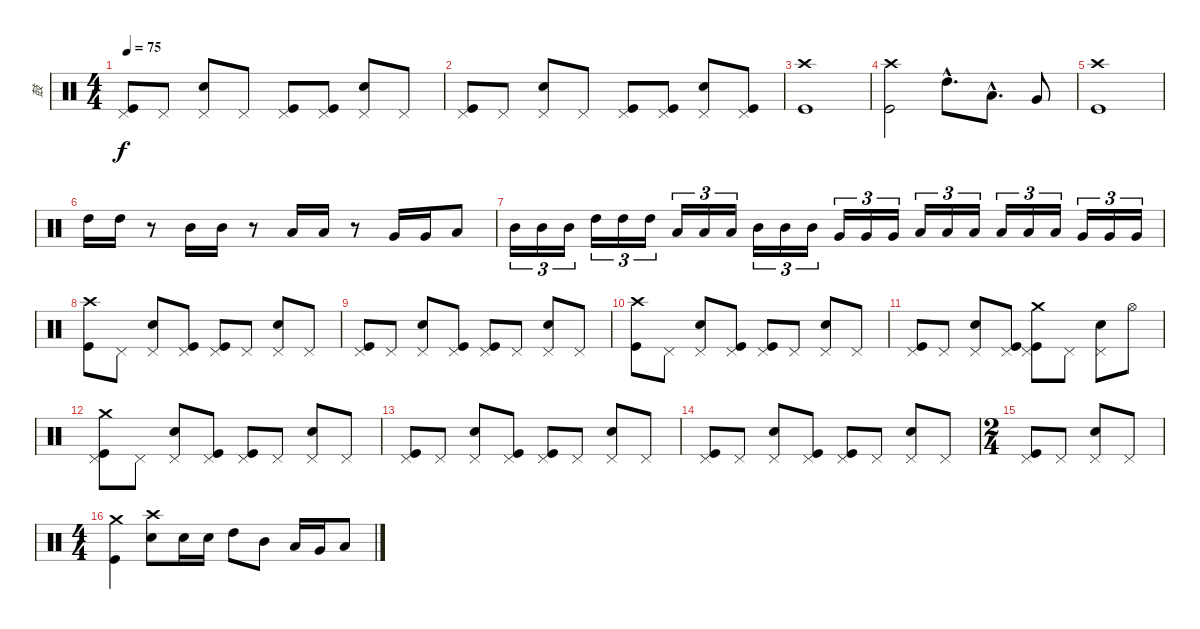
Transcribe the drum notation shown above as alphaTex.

\track ("鼓" "鼓") {instrument percussion}
\staff {score}
\articulation defaults
\ts (4 4)
\tempo 75
\clef neutral
\ks c
("Kick (hit)" "Pedal Hi-Hat (hit)").8{dy f} "Pedal Hi-Hat (hit)".8 ("Snare (hit) 2" "Pedal Hi-Hat (hit)").8 "Pedal Hi-Hat (hit)".8 ("Kick (hit)" "Pedal Hi-Hat (hit)").8 ("Kick (hit)" "Pedal Hi-Hat (hit)").8 ("Snare (hit) 2" "Pedal Hi-Hat (hit)").8 "Pedal Hi-Hat (hit)".8 |
("Kick (hit)" "Pedal Hi-Hat (hit)").8 "Pedal Hi-Hat (hit)".8 ("Snare (hit) 2" "Pedal Hi-Hat (hit)").8 "Pedal Hi-Hat (hit)".8 ("Kick (hit)" "Pedal Hi-Hat (hit)").8 ("Kick (hit)" "Pedal Hi-Hat (hit)").8 ("Snare (hit) 2" "Pedal Hi-Hat (hit)").8 ("Kick (hit)" "Pedal Hi-Hat (hit)").8 |
("Kick (hit)" "Crash high (hit)").1 |
("Kick (hit)" "Crash high (hit)").2 "High Tom (hit)"{hac}.8{d} "Low Tom (hit)"{hac}.8{d} "Very Low Tom (hit)".8 |
("Kick (hit)" "Crash high (hit)").1 |
"High Tom (hit)".16 "High Tom (hit)".16 r.8 "Mid Tom (hit)".16 "Mid Tom (hit)".16 r.8 "Low Tom (hit)".16 "Low Tom (hit)".16 r.8 "Very Low Tom (hit)".16 "Very Low Tom (hit)".16 "Low Floor Tom (hit)".8 |
"Mid Tom (hit)".16{tu (3 2)} "Mid Tom (hit)".16{tu (3 2)} "Mid Tom (hit)".16{tu (3 2)} "High Tom (hit)".16{tu (3 2)} "High Tom (hit)".16{tu (3 2)} "High Tom (hit)".16{tu (3 2)} "Low Tom (hit)".16{tu (3 2)} "Low Tom (hit)".16{tu (3 2)} "Low Tom (hit)".16{tu (3 2)} "Mid Tom (hit)".16{tu (3 2)} "Mid Tom (hit)".16{tu (3 2)} "Mid Tom (hit)".16{tu (3 2)} "Very Low Tom (hit)".16{tu (3 2)} "Very Low Tom (hit)".16{tu (3 2)} "Very Low Tom (hit)".16{tu (3 2)} "Low Tom (hit)".16{tu (3 2)} "Low Tom (hit)".16{tu (3 2)} "Low Tom (hit)".16{tu (3 2)} "Low Floor Tom (hit)".16{tu (3 2)} "Low Floor Tom (hit)".16{tu (3 2)} "Low Floor Tom (hit)".16{tu (3 2)} "Very Low Tom (hit)".16{tu (3 2)} "Very Low Tom (hit)".16{tu (3 2)} "Very Low Tom (hit)".16{tu (3 2)} |
("Kick (hit)" "Crash high (hit)").8 "Pedal Hi-Hat (hit)".8 ("Snare (hit) 2" "Pedal Hi-Hat (hit)").8 ("Kick (hit)" "Pedal Hi-Hat (hit)").8 ("Kick (hit)" "Pedal Hi-Hat (hit)").8 "Pedal Hi-Hat (hit)".8 ("Snare (hit) 2" "Pedal Hi-Hat (hit)").8 "Pedal Hi-Hat (hit)".8 |
("Kick (hit)" "Pedal Hi-Hat (hit)").8 "Pedal Hi-Hat (hit)".8 ("Snare (hit) 2" "Pedal Hi-Hat (hit)").8 ("Kick (hit)" "Pedal Hi-Hat (hit)").8 ("Kick (hit)" "Pedal Hi-Hat (hit)").8 "Pedal Hi-Hat (hit)".8 ("Snare (hit) 2" "Pedal Hi-Hat (hit)").8 "Pedal Hi-Hat (hit)".8 |
("Kick (hit)" "Crash high (hit)").8 "Pedal Hi-Hat (hit)".8 ("Snare (hit) 2" "Pedal Hi-Hat (hit)").8 ("Kick (hit)" "Pedal Hi-Hat (hit)").8 ("Kick (hit)" "Pedal Hi-Hat (hit)").8 "Pedal Hi-Hat (hit)".8 ("Snare (hit) 2" "Pedal Hi-Hat (hit)").8 "Pedal Hi-Hat (hit)".8 |
("Kick (hit)" "Pedal Hi-Hat (hit)").8 "Pedal Hi-Hat (hit)".8 ("Snare (hit) 2" "Pedal Hi-Hat (hit)").8 ("Kick (hit)" "Pedal Hi-Hat (hit)").8 ("Kick (hit)" "Pedal Hi-Hat (hit)" "Crash medium (hit)").8 "Pedal Hi-Hat (hit)".8 ("Snare (hit) 2" "Pedal Hi-Hat (hit)").8 "Hi-Hat (open)".8 |
("Kick (hit)" "Pedal Hi-Hat (hit)" "Crash medium (hit)").8 "Pedal Hi-Hat (hit)".8 ("Snare (hit) 2" "Pedal Hi-Hat (hit)").8 ("Kick (hit)" "Pedal Hi-Hat (hit)").8 ("Kick (hit)" "Pedal Hi-Hat (hit)").8 "Pedal Hi-Hat (hit)".8 ("Snare (hit) 2" "Pedal Hi-Hat (hit)").8 "Pedal Hi-Hat (hit)".8 |
("Kick (hit)" "Pedal Hi-Hat (hit)").8 "Pedal Hi-Hat (hit)".8 ("Snare (hit) 2" "Pedal Hi-Hat (hit)").8 ("Kick (hit)" "Pedal Hi-Hat (hit)").8 ("Kick (hit)" "Pedal Hi-Hat (hit)").8 "Pedal Hi-Hat (hit)".8 ("Snare (hit) 2" "Pedal Hi-Hat (hit)").8 "Pedal Hi-Hat (hit)".8 |
("Kick (hit)" "Pedal Hi-Hat (hit)").8 "Pedal Hi-Hat (hit)".8 ("Snare (hit) 2" "Pedal Hi-Hat (hit)").8 ("Kick (hit)" "Pedal Hi-Hat (hit)").8 ("Kick (hit)" "Pedal Hi-Hat (hit)").8 "Pedal Hi-Hat (hit)".8 ("Snare (hit) 2" "Pedal Hi-Hat (hit)").8 "Pedal Hi-Hat (hit)".8 |
\ts (2 4)
("Kick (hit)" "Pedal Hi-Hat (hit)").8 "Pedal Hi-Hat (hit)".8 ("Snare (hit) 2" "Pedal Hi-Hat (hit)").8 "Pedal Hi-Hat (hit)".8 |
\ts (4 4)
("Kick (hit)" "Crash medium (hit)").4 ("Snare (hit) 2" "Crash high (hit)").8 "Snare (hit) 2".16 "Snare (hit) 2".16 "High Tom (hit)".8 "Mid Tom (hit)".8 "Low Tom (hit)".16 "Very Low Tom (hit)".16 "Low Floor Tom (hit)".8
